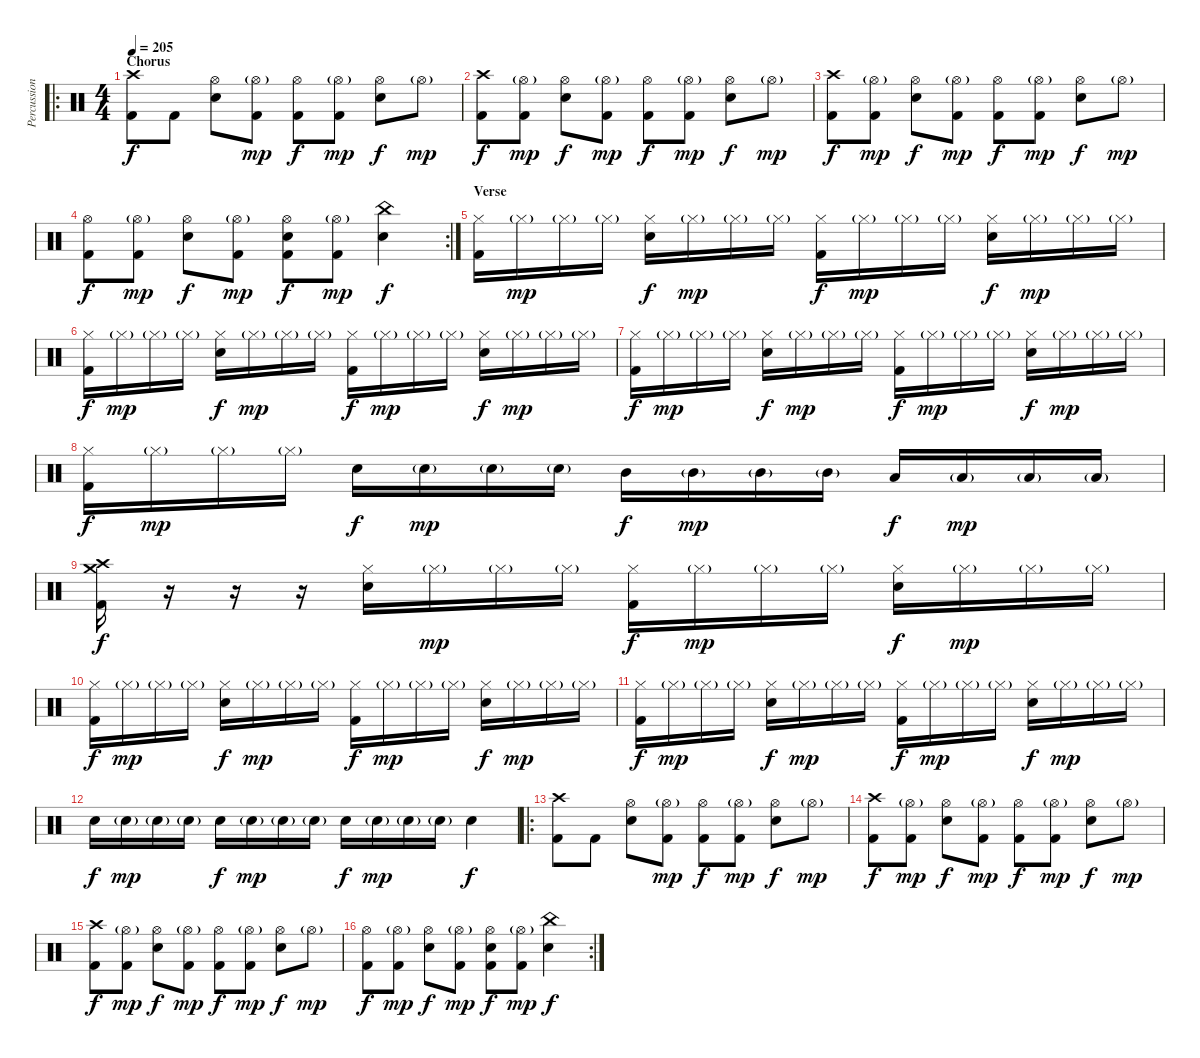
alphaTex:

\track ("Percussion" "Percussion") {instrument percussion}
\staff {score}
\articulation defaults
\ro
\ts (4 4)
\section ("" "Chorus")
\tempo 205
\clef neutral
\ks c
("Crash high (hit)" "Kick (hit) 2").8{dy f} "Kick (hit) 2".8 ("Hi-Hat (open)" "Electric Snare (hit)").8 ("Hi-Hat (open)"{g} "Kick (hit) 2").8{dy mp} ("Hi-Hat (open)" "Kick (hit) 2").8{dy f} ("Hi-Hat (open)"{g} "Kick (hit) 2").8{dy mp} ("Hi-Hat (open)" "Electric Snare (hit)").8{dy f} "Hi-Hat (open)"{g}.8{dy mp} |
("Crash high (hit)" "Kick (hit) 2").8{dy f} ("Hi-Hat (open)"{g} "Kick (hit) 2").8{dy mp} ("Hi-Hat (open)" "Electric Snare (hit)").8{dy f} ("Hi-Hat (open)"{g} "Kick (hit) 2").8{dy mp} ("Hi-Hat (open)" "Kick (hit) 2").8{dy f} ("Hi-Hat (open)"{g} "Kick (hit) 2").8{dy mp} ("Hi-Hat (open)" "Electric Snare (hit)").8{dy f} "Hi-Hat (open)"{g}.8{dy mp} |
("Crash high (hit)" "Kick (hit) 2").8{dy f} ("Hi-Hat (open)"{g} "Kick (hit) 2").8{dy mp} ("Hi-Hat (open)" "Electric Snare (hit)").8{dy f} ("Hi-Hat (open)"{g} "Kick (hit) 2").8{dy mp} ("Hi-Hat (open)" "Kick (hit) 2").8{dy f} ("Hi-Hat (open)"{g} "Kick (hit) 2").8{dy mp} ("Hi-Hat (open)" "Electric Snare (hit)").8{dy f} "Hi-Hat (open)"{g}.8{dy mp} |
\rc 2
("Hi-Hat (open)" "Kick (hit) 2").8{dy f} ("Hi-Hat (open)"{g} "Kick (hit) 2").8{dy mp} ("Hi-Hat (open)" "Electric Snare (hit)").8{dy f} ("Hi-Hat (open)"{g} "Kick (hit) 2").8{dy mp} ("Hi-Hat (open)" "Electric Snare (hit)" "Kick (hit) 2").8{dy f} ("Hi-Hat (open)"{g} "Kick (hit) 2").8{dy mp} ("China (hit)" "Electric Snare (hit)").4{dy f} |
\section ("" "Verse")
("Hi-Hat (closed)" "Kick (hit) 2").16 "Hi-Hat (closed)"{g}.16{dy mp} "Hi-Hat (closed)"{g}.16 "Hi-Hat (closed)"{g}.16 ("Hi-Hat (closed)" "Electric Snare (hit)").16{dy f} "Hi-Hat (closed)"{g}.16{dy mp} "Hi-Hat (closed)"{g}.16 "Hi-Hat (closed)"{g}.16 ("Hi-Hat (closed)" "Kick (hit) 2").16{dy f} "Hi-Hat (closed)"{g}.16{dy mp} "Hi-Hat (closed)"{g}.16 "Hi-Hat (closed)"{g}.16 ("Hi-Hat (closed)" "Electric Snare (hit)").16{dy f} "Hi-Hat (closed)"{g}.16{dy mp} "Hi-Hat (closed)"{g}.16 "Hi-Hat (closed)"{g}.16 |
("Hi-Hat (closed)" "Kick (hit) 2").16{dy f} "Hi-Hat (closed)"{g}.16{dy mp} "Hi-Hat (closed)"{g}.16 "Hi-Hat (closed)"{g}.16 ("Hi-Hat (closed)" "Electric Snare (hit)").16{dy f} "Hi-Hat (closed)"{g}.16{dy mp} "Hi-Hat (closed)"{g}.16 "Hi-Hat (closed)"{g}.16 ("Hi-Hat (closed)" "Kick (hit) 2").16{dy f} "Hi-Hat (closed)"{g}.16{dy mp} "Hi-Hat (closed)"{g}.16 "Hi-Hat (closed)"{g}.16 ("Hi-Hat (closed)" "Electric Snare (hit)").16{dy f} "Hi-Hat (closed)"{g}.16{dy mp} "Hi-Hat (closed)"{g}.16 "Hi-Hat (closed)"{g}.16 |
("Hi-Hat (closed)" "Kick (hit) 2").16{dy f} "Hi-Hat (closed)"{g}.16{dy mp} "Hi-Hat (closed)"{g}.16 "Hi-Hat (closed)"{g}.16 ("Hi-Hat (closed)" "Electric Snare (hit)").16{dy f} "Hi-Hat (closed)"{g}.16{dy mp} "Hi-Hat (closed)"{g}.16 "Hi-Hat (closed)"{g}.16 ("Hi-Hat (closed)" "Kick (hit) 2").16{dy f} "Hi-Hat (closed)"{g}.16{dy mp} "Hi-Hat (closed)"{g}.16 "Hi-Hat (closed)"{g}.16 ("Hi-Hat (closed)" "Electric Snare (hit)").16{dy f} "Hi-Hat (closed)"{g}.16{dy mp} "Hi-Hat (closed)"{g}.16 "Hi-Hat (closed)"{g}.16 |
("Hi-Hat (closed)" "Kick (hit) 2").16{dy f} "Hi-Hat (closed)"{g}.16{dy mp} "Hi-Hat (closed)"{g}.16 "Hi-Hat (closed)"{g}.16 "Electric Snare (hit)".16{dy f} "Electric Snare (hit)"{g}.16{dy mp} "Electric Snare (hit)"{g}.16 "Electric Snare (hit)"{g}.16 "Mid Tom (hit)".16{dy f} "Mid Tom (hit)"{g}.16{dy mp} "Mid Tom (hit)"{g}.16 "Mid Tom (hit)"{g}.16 "Low Tom (hit)".16{dy f} "Low Tom (hit)"{g}.16{dy mp} "Low Tom (hit)"{g}.16 "Low Tom (hit)"{g}.16 |
("Crash high (hit)" "Crash medium (hit)" "Kick (hit) 2").16{dy f} r.16 r.16 r.16 ("Hi-Hat (closed)" "Electric Snare (hit)").16 "Hi-Hat (closed)"{g}.16{dy mp} "Hi-Hat (closed)"{g}.16 "Hi-Hat (closed)"{g}.16 ("Hi-Hat (closed)" "Kick (hit) 2").16{dy f} "Hi-Hat (closed)"{g}.16{dy mp} "Hi-Hat (closed)"{g}.16 "Hi-Hat (closed)"{g}.16 ("Hi-Hat (closed)" "Electric Snare (hit)").16{dy f} "Hi-Hat (closed)"{g}.16{dy mp} "Hi-Hat (closed)"{g}.16 "Hi-Hat (closed)"{g}.16 |
("Hi-Hat (closed)" "Kick (hit) 2").16{dy f} "Hi-Hat (closed)"{g}.16{dy mp} "Hi-Hat (closed)"{g}.16 "Hi-Hat (closed)"{g}.16 ("Hi-Hat (closed)" "Electric Snare (hit)").16{dy f} "Hi-Hat (closed)"{g}.16{dy mp} "Hi-Hat (closed)"{g}.16 "Hi-Hat (closed)"{g}.16 ("Hi-Hat (closed)" "Kick (hit) 2").16{dy f} "Hi-Hat (closed)"{g}.16{dy mp} "Hi-Hat (closed)"{g}.16 "Hi-Hat (closed)"{g}.16 ("Hi-Hat (closed)" "Electric Snare (hit)").16{dy f} "Hi-Hat (closed)"{g}.16{dy mp} "Hi-Hat (closed)"{g}.16 "Hi-Hat (closed)"{g}.16 |
("Hi-Hat (closed)" "Kick (hit) 2").16{dy f} "Hi-Hat (closed)"{g}.16{dy mp} "Hi-Hat (closed)"{g}.16 "Hi-Hat (closed)"{g}.16 ("Hi-Hat (closed)" "Electric Snare (hit)").16{dy f} "Hi-Hat (closed)"{g}.16{dy mp} "Hi-Hat (closed)"{g}.16 "Hi-Hat (closed)"{g}.16 ("Hi-Hat (closed)" "Kick (hit) 2").16{dy f} "Hi-Hat (closed)"{g}.16{dy mp} "Hi-Hat (closed)"{g}.16 "Hi-Hat (closed)"{g}.16 ("Hi-Hat (closed)" "Electric Snare (hit)").16{dy f} "Hi-Hat (closed)"{g}.16{dy mp} "Hi-Hat (closed)"{g}.16 "Hi-Hat (closed)"{g}.16 |
"Electric Snare (hit)".16{dy f} "Electric Snare (hit)"{g}.16{dy mp} "Electric Snare (hit)"{g}.16 "Electric Snare (hit)"{g}.16 "Electric Snare (hit)".16{dy f} "Electric Snare (hit)"{g}.16{dy mp} "Electric Snare (hit)"{g}.16 "Electric Snare (hit)"{g}.16 "Electric Snare (hit)".16{dy f} "Electric Snare (hit)"{g}.16{dy mp} "Electric Snare (hit)"{g}.16 "Electric Snare (hit)"{g}.16 "Electric Snare (hit)".4{dy f} |
\ro
("Crash high (hit)" "Kick (hit) 2").8 "Kick (hit) 2".8 ("Hi-Hat (open)" "Electric Snare (hit)").8 ("Hi-Hat (open)"{g} "Kick (hit) 2").8{dy mp} ("Hi-Hat (open)" "Kick (hit) 2").8{dy f} ("Hi-Hat (open)"{g} "Kick (hit) 2").8{dy mp} ("Hi-Hat (open)" "Electric Snare (hit)").8{dy f} "Hi-Hat (open)"{g}.8{dy mp} |
("Crash high (hit)" "Kick (hit) 2").8{dy f} ("Hi-Hat (open)"{g} "Kick (hit) 2").8{dy mp} ("Hi-Hat (open)" "Electric Snare (hit)").8{dy f} ("Hi-Hat (open)"{g} "Kick (hit) 2").8{dy mp} ("Hi-Hat (open)" "Kick (hit) 2").8{dy f} ("Hi-Hat (open)"{g} "Kick (hit) 2").8{dy mp} ("Hi-Hat (open)" "Electric Snare (hit)").8{dy f} "Hi-Hat (open)"{g}.8{dy mp} |
("Crash high (hit)" "Kick (hit) 2").8{dy f} ("Hi-Hat (open)"{g} "Kick (hit) 2").8{dy mp} ("Hi-Hat (open)" "Electric Snare (hit)").8{dy f} ("Hi-Hat (open)"{g} "Kick (hit) 2").8{dy mp} ("Hi-Hat (open)" "Kick (hit) 2").8{dy f} ("Hi-Hat (open)"{g} "Kick (hit) 2").8{dy mp} ("Hi-Hat (open)" "Electric Snare (hit)").8{dy f} "Hi-Hat (open)"{g}.8{dy mp} |
\rc 2
("Hi-Hat (open)" "Kick (hit) 2").8{dy f} ("Hi-Hat (open)"{g} "Kick (hit) 2").8{dy mp} ("Hi-Hat (open)" "Electric Snare (hit)").8{dy f} ("Hi-Hat (open)"{g} "Kick (hit) 2").8{dy mp} ("Hi-Hat (open)" "Electric Snare (hit)" "Kick (hit) 2").8{dy f} ("Hi-Hat (open)"{g} "Kick (hit) 2").8{dy mp} ("China (hit)" "Electric Snare (hit)").4{dy f}
